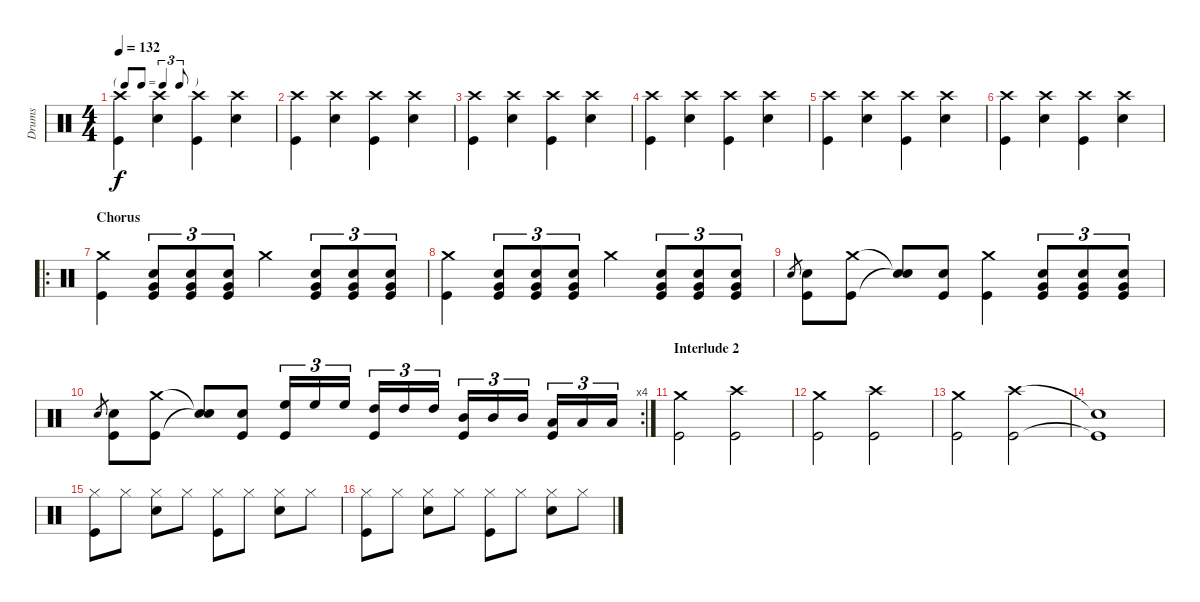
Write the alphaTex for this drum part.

\track ("Drums" "Drums") {instrument percussion}
\staff {score}
\articulation defaults
\ts (4 4)
\tf triplet8th
\tempo 132
\clef neutral
\ks c
("Crash high (hit)" "Kick (hit)").4{dy f} ("Crash high (hit)" "Snare (hit) 2").4 ("Crash high (hit)" "Kick (hit)").4 ("Crash high (hit)" "Snare (hit) 2").4 |
("Crash high (hit)" "Kick (hit)").4 ("Crash high (hit)" "Snare (hit) 2").4 ("Crash high (hit)" "Kick (hit)").4 ("Crash high (hit)" "Snare (hit) 2").4 |
("Crash high (hit)" "Kick (hit)").4 ("Crash high (hit)" "Snare (hit) 2").4 ("Crash high (hit)" "Kick (hit)").4 ("Crash high (hit)" "Snare (hit) 2").4 |
("Crash high (hit)" "Kick (hit)").4 ("Crash high (hit)" "Snare (hit) 2").4 ("Crash high (hit)" "Kick (hit)").4 ("Crash high (hit)" "Snare (hit) 2").4 |
("Crash high (hit)" "Kick (hit)").4 ("Crash high (hit)" "Snare (hit) 2").4 ("Crash high (hit)" "Kick (hit)").4 ("Crash high (hit)" "Snare (hit) 2").4 |
("Crash high (hit)" "Kick (hit)").4 ("Crash high (hit)" "Snare (hit) 2").4 ("Crash high (hit)" "Kick (hit)").4 ("Crash high (hit)" "Snare (hit) 2").4 |
\ro
\section ("" "Chorus")
("Crash medium (hit)" "Kick (hit)").4 ("Very Low Tom (hit)" "Snare (hit) 2" "Kick (hit)").8{tu (3 2)} ("Very Low Tom (hit)" "Snare (hit) 2" "Kick (hit)").8{tu (3 2)} ("Very Low Tom (hit)" "Snare (hit) 2" "Kick (hit)").8{tu (3 2)} "Crash medium (hit)".4 ("Very Low Tom (hit)" "Snare (hit) 2" "Kick (hit)").8{tu (3 2)} ("Very Low Tom (hit)" "Snare (hit) 2" "Kick (hit)").8{tu (3 2)} ("Very Low Tom (hit)" "Snare (hit) 2" "Kick (hit)").8{tu (3 2)} |
("Crash medium (hit)" "Kick (hit)").4 ("Very Low Tom (hit)" "Snare (hit) 2" "Kick (hit)").8{tu (3 2)} ("Very Low Tom (hit)" "Snare (hit) 2" "Kick (hit)").8{tu (3 2)} ("Very Low Tom (hit)" "Snare (hit) 2" "Kick (hit)").8{tu (3 2)} "Crash medium (hit)".4 ("Very Low Tom (hit)" "Snare (hit) 2" "Kick (hit)").8{tu (3 2)} ("Very Low Tom (hit)" "Snare (hit) 2" "Kick (hit)").8{tu (3 2)} ("Very Low Tom (hit)" "Snare (hit) 2" "Kick (hit)").8{tu (3 2)} |
"Snare (hit) 2".8{gr} ("Snare (hit) 2" "Kick (hit)").8 ("Crash medium (hit)" "Kick (hit)").8 ("Snare (hit)"{t} "Snare (hit)"{t}).8 ("Snare (hit) 2" "Kick (hit)").8 ("Crash medium (hit)" "Kick (hit)").4 ("Very Low Tom (hit)" "Snare (hit) 2" "Kick (hit)").8{tu (3 2)} ("Very Low Tom (hit)" "Snare (hit) 2" "Kick (hit)").8{tu (3 2)} ("Very Low Tom (hit)" "Snare (hit) 2" "Kick (hit)").8{tu (3 2)} |
\rc 4 "Snare (hit) 2".8{gr}
("Snare (hit) 2" "Kick (hit)").8 ("Crash medium (hit)" "Kick (hit)").8 ("Snare (hit)"{t} "Snare (hit)"{t}).8 ("Snare (hit) 2" "Kick (hit)").8 ("High Floor Tom (hit)" "Kick (hit)").16{tu (3 2)} "High Floor Tom (hit)".16{tu (3 2)} "High Floor Tom (hit)".16{tu (3 2)} ("High Tom (hit)" "Kick (hit)").16{tu (3 2)} "High Tom (hit)".16{tu (3 2)} "High Tom (hit)".16{tu (3 2)} ("Mid Tom (hit)" "Kick (hit)").16{tu (3 2)} "Mid Tom (hit)".16{tu (3 2)} "Mid Tom (hit)".16{tu (3 2)} ("Low Tom (hit)" "Kick (hit)").16{tu (3 2)} "Low Tom (hit)".16{tu (3 2)} "Low Tom (hit)".16{tu (3 2)} |
\section ("" "Interlude 2")
("Crash medium (hit)" "Kick (hit)").2 ("Crash high (hit)" "Kick (hit)").2 |
("Crash medium (hit)" "Kick (hit)").2 ("Crash high (hit)" "Kick (hit)").2 |
("Crash medium (hit)" "Kick (hit)").2 ("Crash high (hit)" "Kick (hit)").2 |
("Snare (hit)"{t} "Kick (hit)"{t}).1 |
("Hi-Hat (closed)" "Kick (hit)").8 "Hi-Hat (closed)".8 ("Hi-Hat (closed)" "Snare (hit) 2").8 "Hi-Hat (closed)".8 ("Hi-Hat (closed)" "Kick (hit)").8 "Hi-Hat (closed)".8 ("Hi-Hat (closed)" "Snare (hit) 2").8 "Hi-Hat (closed)".8 |
("Hi-Hat (closed)" "Kick (hit)").8 "Hi-Hat (closed)".8 ("Hi-Hat (closed)" "Snare (hit) 2").8 "Hi-Hat (closed)".8 ("Hi-Hat (closed)" "Kick (hit)").8 "Hi-Hat (closed)".8 ("Hi-Hat (closed)" "Snare (hit) 2").8 "Hi-Hat (closed)".8
